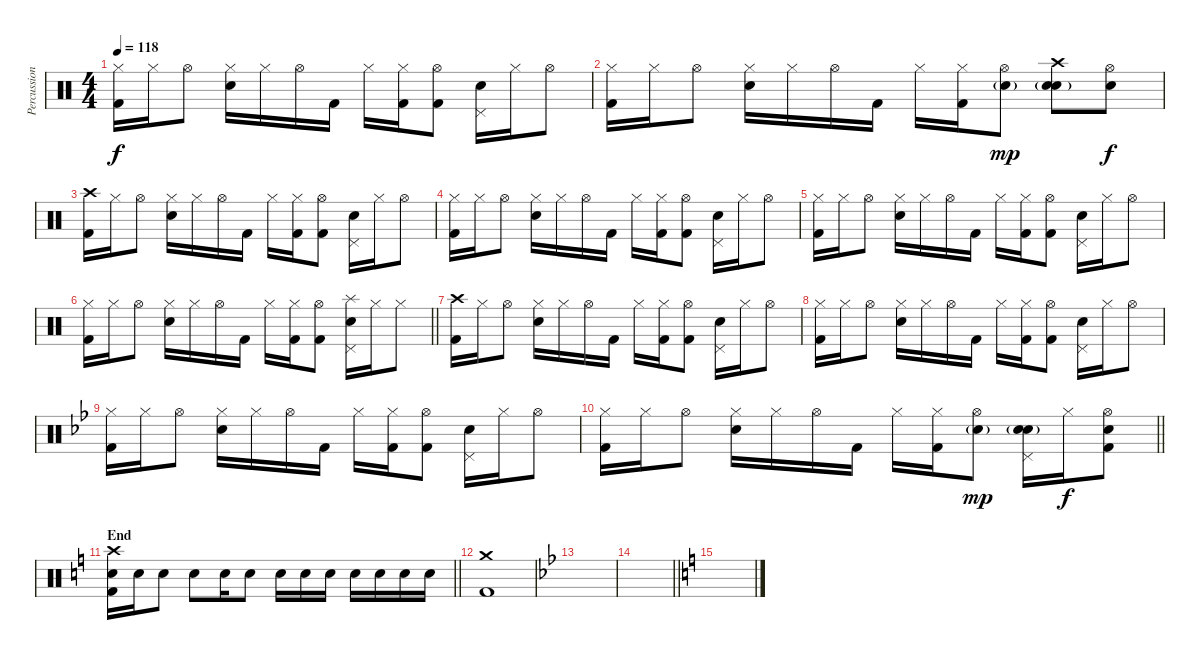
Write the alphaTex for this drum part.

\track ("Percussion" "Percussion") {instrument percussion}
\staff {score}
\articulation defaults
\ts (4 4)
\tempo 118
\clef neutral
\ks c
("Hi-Hat (closed)" "Kick (hit) 2").16{dy f} "Hi-Hat (closed)".16 "Hi-Hat (open)".8 ("Hi-Hat (closed)" "Electric Snare (hit)").16 "Hi-Hat (closed)".16 "Hi-Hat (open)".16 "Kick (hit) 2".16 "Hi-Hat (closed)".16 ("Hi-Hat (closed)" "Kick (hit) 2").16 ("Hi-Hat (open)" "Kick (hit) 2").8 ("Pedal Hi-Hat (hit)" "Electric Snare (hit)").16 "Hi-Hat (closed)".16 "Hi-Hat (open)".8 |
("Hi-Hat (closed)" "Kick (hit) 2").16 "Hi-Hat (closed)".16 "Hi-Hat (open)".8 ("Hi-Hat (closed)" "Electric Snare (hit)").16 "Hi-Hat (closed)".16 "Hi-Hat (open)".16 "Kick (hit) 2".16 "Hi-Hat (closed)".16 ("Hi-Hat (closed)" "Kick (hit) 2").16 ("Hi-Hat (open)" "Hand Clap (hit)"{g}).8{dy mp} ("Crash high (hit)" "Electric Snare (hit)" "Hand Clap (hit)"{g}).8 ("Hi-Hat (open)" "Electric Snare (hit)").8{dy f} |
("Crash high (hit)" "Kick (hit) 2").16 "Hi-Hat (closed)".16 "Hi-Hat (open)".8 ("Hi-Hat (closed)" "Electric Snare (hit)").16 "Hi-Hat (closed)".16 "Hi-Hat (open)".16 "Kick (hit) 2".16 "Hi-Hat (closed)".16 ("Hi-Hat (closed)" "Kick (hit) 2").16 ("Hi-Hat (open)" "Kick (hit) 2").8 ("Pedal Hi-Hat (hit)" "Electric Snare (hit)").16 "Hi-Hat (closed)".16 "Hi-Hat (open)".8 |
("Hi-Hat (closed)" "Kick (hit) 2").16 "Hi-Hat (closed)".16 "Hi-Hat (open)".8 ("Hi-Hat (closed)" "Electric Snare (hit)").16 "Hi-Hat (closed)".16 "Hi-Hat (open)".16 "Kick (hit) 2".16 "Hi-Hat (closed)".16 ("Hi-Hat (closed)" "Kick (hit) 2").16 ("Hi-Hat (open)" "Kick (hit) 2").8 ("Pedal Hi-Hat (hit)" "Electric Snare (hit)").16 "Hi-Hat (closed)".16 "Hi-Hat (open)".8 |
("Hi-Hat (closed)" "Kick (hit) 2").16 "Hi-Hat (closed)".16 "Hi-Hat (open)".8 ("Hi-Hat (closed)" "Electric Snare (hit)").16 "Hi-Hat (closed)".16 "Hi-Hat (open)".16 "Kick (hit) 2".16 "Hi-Hat (closed)".16 ("Hi-Hat (closed)" "Kick (hit) 2").16 ("Hi-Hat (open)" "Kick (hit) 2").8 ("Pedal Hi-Hat (hit)" "Electric Snare (hit)").16 "Hi-Hat (closed)".16 "Hi-Hat (open)".8 |
\barLineRight lightlight
("Hi-Hat (closed)" "Kick (hit) 2").16 "Hi-Hat (closed)".16 "Hi-Hat (open)".8 ("Hi-Hat (closed)" "Electric Snare (hit)").16 "Hi-Hat (closed)".16 "Hi-Hat (open)".16 "Kick (hit) 2".16 "Hi-Hat (closed)".16 ("Hi-Hat (closed)" "Kick (hit) 2").16 ("Hi-Hat (open)" "Kick (hit) 2").8 ("Splash (hit)" "Pedal Hi-Hat (hit)" "Electric Snare (hit)").16 "Hi-Hat (closed)".16 "Hi-Hat (closed)".8 |
("Crash high (hit)" "Kick (hit) 2").16 "Hi-Hat (closed)".16 "Hi-Hat (open)".8 ("Hi-Hat (closed)" "Electric Snare (hit)").16 "Hi-Hat (closed)".16 "Hi-Hat (open)".16 "Kick (hit) 2".16 "Hi-Hat (closed)".16 ("Hi-Hat (closed)" "Kick (hit) 2").16 ("Hi-Hat (open)" "Kick (hit) 2").8 ("Pedal Hi-Hat (hit)" "Electric Snare (hit)").16 "Hi-Hat (closed)".16 "Hi-Hat (open)".8 |
("Hi-Hat (closed)" "Kick (hit) 2").16 "Hi-Hat (closed)".16 "Hi-Hat (open)".8 ("Hi-Hat (closed)" "Electric Snare (hit)").16 "Hi-Hat (closed)".16 "Hi-Hat (open)".16 "Kick (hit) 2".16 "Hi-Hat (closed)".16 ("Hi-Hat (closed)" "Kick (hit) 2").16 ("Hi-Hat (open)" "Kick (hit) 2").8 ("Pedal Hi-Hat (hit)" "Electric Snare (hit)").16 "Hi-Hat (closed)".16 "Hi-Hat (open)".8 |
\ks bb
("Hi-Hat (closed)" "Kick (hit) 2").16 "Hi-Hat (closed)".16 "Hi-Hat (open)".8 ("Hi-Hat (closed)" "Electric Snare (hit)").16 "Hi-Hat (closed)".16 "Hi-Hat (open)".16 "Kick (hit) 2".16 "Hi-Hat (closed)".16 ("Hi-Hat (closed)" "Kick (hit) 2").16 ("Hi-Hat (open)" "Kick (hit) 2").8 ("Pedal Hi-Hat (hit)" "Electric Snare (hit)").16 "Hi-Hat (closed)".16 "Hi-Hat (open)".8 |
\barLineRight lightlight
("Hi-Hat (closed)" "Kick (hit) 2").16 "Hi-Hat (closed)".16 "Hi-Hat (open)".8 ("Hi-Hat (closed)" "Electric Snare (hit)").16 "Hi-Hat (closed)".16 "Hi-Hat (open)".16 "Kick (hit) 2".16 "Hi-Hat (closed)".16 ("Hi-Hat (closed)" "Kick (hit) 2").16 ("Hi-Hat (open)" "Hand Clap (hit)"{g}).8{dy mp} ("Pedal Hi-Hat (hit)" "Electric Snare (hit)" "Hand Clap (hit)"{g}).16 "Hi-Hat (closed)".16{dy f} ("Hi-Hat (open)" "Electric Snare (hit)" "Kick (hit) 2").8 |
\section ("" "End")
\barLineRight lightlight
\ks c
("Crash high (hit)" "Electric Snare (hit)" "Kick (hit) 2").16 "Electric Snare (hit)".16 "Electric Snare (hit)".8 "Electric Snare (hit)".8 "Electric Snare (hit)".16 "Electric Snare (hit)".8 "Electric Snare (hit)".16 "Electric Snare (hit)".16 "Electric Snare (hit)".16 "Electric Snare (hit)".16 "Electric Snare (hit)".16 "Electric Snare (hit)".16 "Electric Snare (hit)".16 |
("Crash medium (hit)" "Kick (hit) 2").1 |
\ks bb
|
\barLineRight lightlight
|
\ks c
